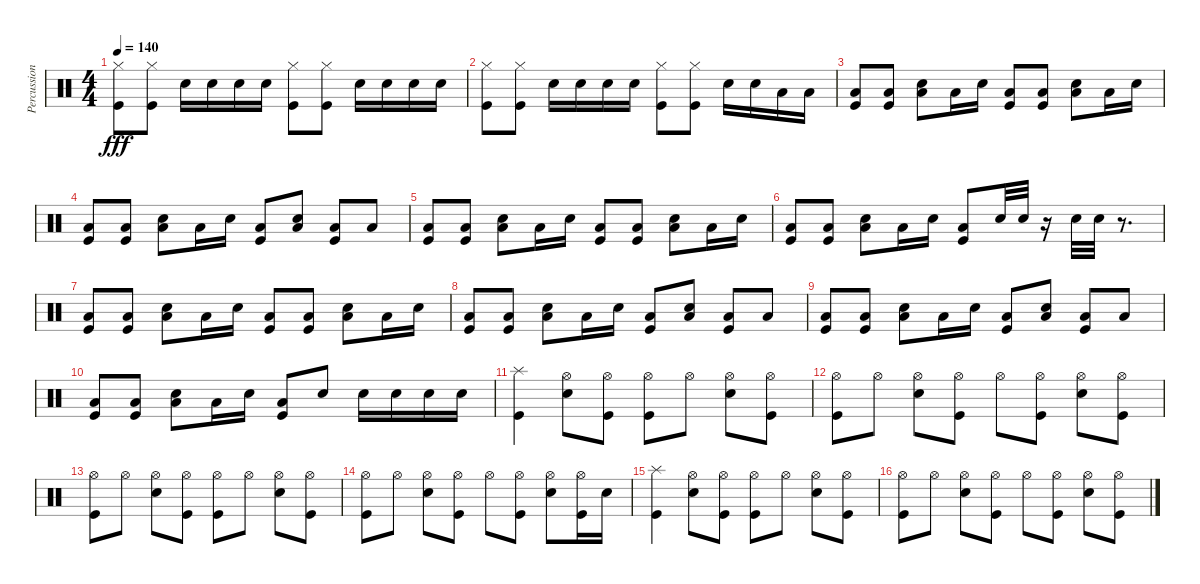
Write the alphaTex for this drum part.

\track ("Percussion" "Percussion") {instrument percussion}
\staff {score}
\articulation defaults
\ts (4 4)
\tempo 140
\clef neutral
\ks c
("Hi-Hat (closed)" "Kick (hit)").8{dy fff} ("Hi-Hat (closed)" "Kick (hit)").8 "Snare (hit) 2".16 "Snare (hit) 2".16 "Snare (hit) 2".16 "Snare (hit) 2".16 ("Hi-Hat (closed)" "Kick (hit)").8 ("Hi-Hat (closed)" "Kick (hit)").8 "Snare (hit) 2".16 "Snare (hit) 2".16 "Snare (hit) 2".16 "Snare (hit) 2".16 |
("Hi-Hat (closed)" "Kick (hit)").8 ("Hi-Hat (closed)" "Kick (hit)").8 "Snare (hit) 2".16 "Snare (hit) 2".16 "Snare (hit) 2".16 "Snare (hit) 2".16 ("Hi-Hat (closed)" "Kick (hit)").8 ("Hi-Hat (closed)" "Kick (hit)").8 "Snare (hit) 2".16 "Snare (hit) 2".16 "Low Tom (hit)".16 "Low Tom (hit)".16 |
("Low Tom (hit)" "Kick (hit)").8 ("Low Tom (hit)" "Kick (hit)").8 ("Low Tom (hit)" "Snare (hit) 2").8 "Low Tom (hit)".16 "Snare (hit) 2".16 ("Low Tom (hit)" "Kick (hit)").8 ("Low Tom (hit)" "Kick (hit)").8 ("Low Tom (hit)" "Snare (hit) 2").8 "Low Tom (hit)".16 "Snare (hit) 2".16 |
("Low Tom (hit)" "Kick (hit)").8 ("Low Tom (hit)" "Kick (hit)").8 ("Low Tom (hit)" "Snare (hit) 2").8 "Low Tom (hit)".16 "Snare (hit) 2".16 ("Low Tom (hit)" "Kick (hit)").8 ("Low Tom (hit)" "Snare (hit) 2").8 ("Low Tom (hit)" "Kick (hit)").8 "Low Tom (hit)".8 |
("Low Tom (hit)" "Kick (hit)").8 ("Low Tom (hit)" "Kick (hit)").8 ("Low Tom (hit)" "Snare (hit) 2").8 "Low Tom (hit)".16 "Snare (hit) 2".16 ("Low Tom (hit)" "Kick (hit)").8 ("Low Tom (hit)" "Kick (hit)").8 ("Low Tom (hit)" "Snare (hit) 2").8 "Low Tom (hit)".16 "Snare (hit) 2".16 |
("Low Tom (hit)" "Kick (hit)").8 ("Low Tom (hit)" "Kick (hit)").8 ("Low Tom (hit)" "Snare (hit) 2").8 "Low Tom (hit)".16 "Snare (hit) 2".16 ("Low Tom (hit)" "Kick (hit)").8 "Snare (hit) 2".32 "Snare (hit) 2".32 r.16 "Snare (hit) 2".32 "Snare (hit) 2".32 r.8{d} |
("Low Tom (hit)" "Kick (hit)").8 ("Low Tom (hit)" "Kick (hit)").8 ("Low Tom (hit)" "Snare (hit) 2").8 "Low Tom (hit)".16 "Snare (hit) 2".16 ("Low Tom (hit)" "Kick (hit)").8 ("Low Tom (hit)" "Kick (hit)").8 ("Low Tom (hit)" "Snare (hit) 2").8 "Low Tom (hit)".16 "Snare (hit) 2".16 |
("Low Tom (hit)" "Kick (hit)").8 ("Low Tom (hit)" "Kick (hit)").8 ("Low Tom (hit)" "Snare (hit) 2").8 "Low Tom (hit)".16 "Snare (hit) 2".16 ("Low Tom (hit)" "Kick (hit)").8 ("Low Tom (hit)" "Snare (hit) 2").8 ("Low Tom (hit)" "Kick (hit)").8 "Low Tom (hit)".8 |
("Low Tom (hit)" "Kick (hit)").8 ("Low Tom (hit)" "Kick (hit)").8 ("Low Tom (hit)" "Snare (hit) 2").8 "Low Tom (hit)".16 "Snare (hit) 2".16 ("Low Tom (hit)" "Kick (hit)").8 ("Low Tom (hit)" "Snare (hit) 2").8 ("Low Tom (hit)" "Kick (hit)").8 "Low Tom (hit)".8 |
("Low Tom (hit)" "Kick (hit)").8 ("Low Tom (hit)" "Kick (hit)").8 ("Low Tom (hit)" "Snare (hit) 2").8 "Low Tom (hit)".16 "Snare (hit) 2".16 ("Low Tom (hit)" "Kick (hit)").8 "Snare (hit) 2".8 "Snare (hit) 2".16 "Snare (hit) 2".16 "Snare (hit) 2".16 "Snare (hit) 2".16 |
("Splash (hit)" "Kick (hit)").4 ("Hi-Hat (open)" "Snare (hit) 2").8 ("Hi-Hat (open)" "Kick (hit)").8 ("Hi-Hat (open)" "Kick (hit)").8 "Hi-Hat (open)".8 ("Hi-Hat (open)" "Snare (hit) 2").8 ("Hi-Hat (open)" "Kick (hit)").8 |
("Hi-Hat (open)" "Kick (hit)").8 "Hi-Hat (open)".8 ("Hi-Hat (open)" "Snare (hit) 2").8 ("Hi-Hat (open)" "Kick (hit)").8 "Hi-Hat (open)".8 ("Hi-Hat (open)" "Kick (hit)").8 ("Hi-Hat (open)" "Snare (hit) 2").8 ("Hi-Hat (open)" "Kick (hit)").8 |
("Hi-Hat (open)" "Kick (hit)").8 "Hi-Hat (open)".8 ("Hi-Hat (open)" "Snare (hit) 2").8 ("Hi-Hat (open)" "Kick (hit)").8 ("Hi-Hat (open)" "Kick (hit)").8 "Hi-Hat (open)".8 ("Hi-Hat (open)" "Snare (hit) 2").8 ("Hi-Hat (open)" "Kick (hit)").8 |
("Hi-Hat (open)" "Kick (hit)").8 "Hi-Hat (open)".8 ("Hi-Hat (open)" "Snare (hit) 2").8 ("Hi-Hat (open)" "Kick (hit)").8 "Hi-Hat (open)".8 ("Hi-Hat (open)" "Kick (hit)").8 ("Hi-Hat (open)" "Snare (hit) 2").8 ("Hi-Hat (open)" "Kick (hit)").16 "Snare (hit) 2".16 |
("Splash (hit)" "Kick (hit)").4 ("Hi-Hat (open)" "Snare (hit) 2").8 ("Hi-Hat (open)" "Kick (hit)").8 ("Hi-Hat (open)" "Kick (hit)").8 "Hi-Hat (open)".8 ("Hi-Hat (open)" "Snare (hit) 2").8 ("Hi-Hat (open)" "Kick (hit)").8 |
("Hi-Hat (open)" "Kick (hit)").8 "Hi-Hat (open)".8 ("Hi-Hat (open)" "Snare (hit) 2").8 ("Hi-Hat (open)" "Kick (hit)").8 "Hi-Hat (open)".8 ("Hi-Hat (open)" "Kick (hit)").8 ("Hi-Hat (open)" "Snare (hit) 2").8 ("Hi-Hat (open)" "Kick (hit)").8
